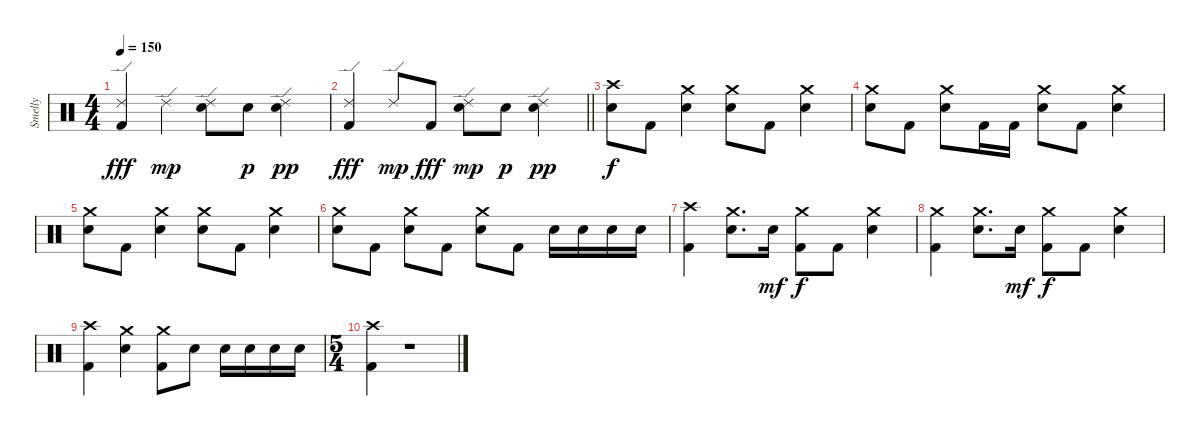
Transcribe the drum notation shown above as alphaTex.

\track ("Smelly" "Smelly") {instrument percussion}
\staff {score}
\articulation defaults
\ts (4 4)
\tempo 150
\clef neutral
\ks c
("Ride (edge) 2" "Kick (hit) 2").4{dy fff} "Ride (edge) 2".4{dy mp} ("Ride (edge) 2" "Snare (hit) 2").8 "Snare (hit) 2".8{dy p} ("Ride (edge) 2" "Snare (hit) 2").4{dy pp} |
\barLineRight lightlight
("Ride (edge) 2" "Kick (hit) 2").4{dy fff} "Ride (edge) 2".8{dy mp} "Kick (hit) 2".8{dy fff} ("Ride (edge) 2" "Snare (hit) 2").8{dy mp} "Snare (hit) 2".8{dy p} ("Ride (edge) 2" "Snare (hit) 2").4{dy pp} |
\section ("" "")
("Crash high (hit)" "Electric Snare (hit)").8{dy f volume 14} "Kick (hit) 2".8 ("Crash medium (hit)" "Electric Snare (hit)").4 ("Crash medium (hit)" "Electric Snare (hit)").8 "Kick (hit) 2".8 ("Crash medium (hit)" "Electric Snare (hit)").4 |
("Crash medium (hit)" "Electric Snare (hit)").8 "Kick (hit) 2".8 ("Crash medium (hit)" "Electric Snare (hit)").8 "Kick (hit) 2".16 "Kick (hit) 2".16 ("Crash medium (hit)" "Electric Snare (hit)").8 "Kick (hit) 2".8 ("Crash medium (hit)" "Electric Snare (hit)").4 |
("Crash medium (hit)" "Electric Snare (hit)").8 "Kick (hit) 2".8 ("Crash medium (hit)" "Electric Snare (hit)").4 ("Crash medium (hit)" "Electric Snare (hit)").8 "Kick (hit) 2".8 ("Crash medium (hit)" "Electric Snare (hit)").4 |
("Crash medium (hit)" "Electric Snare (hit)").8 "Kick (hit) 2".8 ("Crash medium (hit)" "Electric Snare (hit)").8 "Kick (hit) 2".8 ("Crash medium (hit)" "Electric Snare (hit)").8 "Kick (hit) 2".8 "Electric Snare (hit)".16 "Electric Snare (hit)".16 "Electric Snare (hit)".16 "Electric Snare (hit)".16 |
("Crash high (hit)" "Kick (hit) 2").4 ("Crash medium (hit)" "Electric Snare (hit)").8{d} "Electric Snare (hit)".16{dy mf} ("Crash medium (hit)" "Kick (hit) 2").8{dy f} "Kick (hit) 2".8 ("Crash medium (hit)" "Electric Snare (hit)").4 |
("Crash medium (hit)" "Kick (hit) 2").4 ("Crash medium (hit)" "Electric Snare (hit)").8{d} "Electric Snare (hit)".16{dy mf} ("Crash medium (hit)" "Kick (hit) 2").8{dy f} "Kick (hit) 2".8 ("Crash medium (hit)" "Electric Snare (hit)").4 |
("Crash high (hit)" "Kick (hit) 2").4 ("Crash medium (hit)" "Electric Snare (hit)").4 ("Crash medium (hit)" "Kick (hit) 2").8 "Electric Snare (hit)".8 "Electric Snare (hit)".16 "Electric Snare (hit)".16 "Electric Snare (hit)".16 "Electric Snare (hit)".16 |
\ts (5 4)
("Crash high (hit)" "Kick (hit) 2").4 r.1
